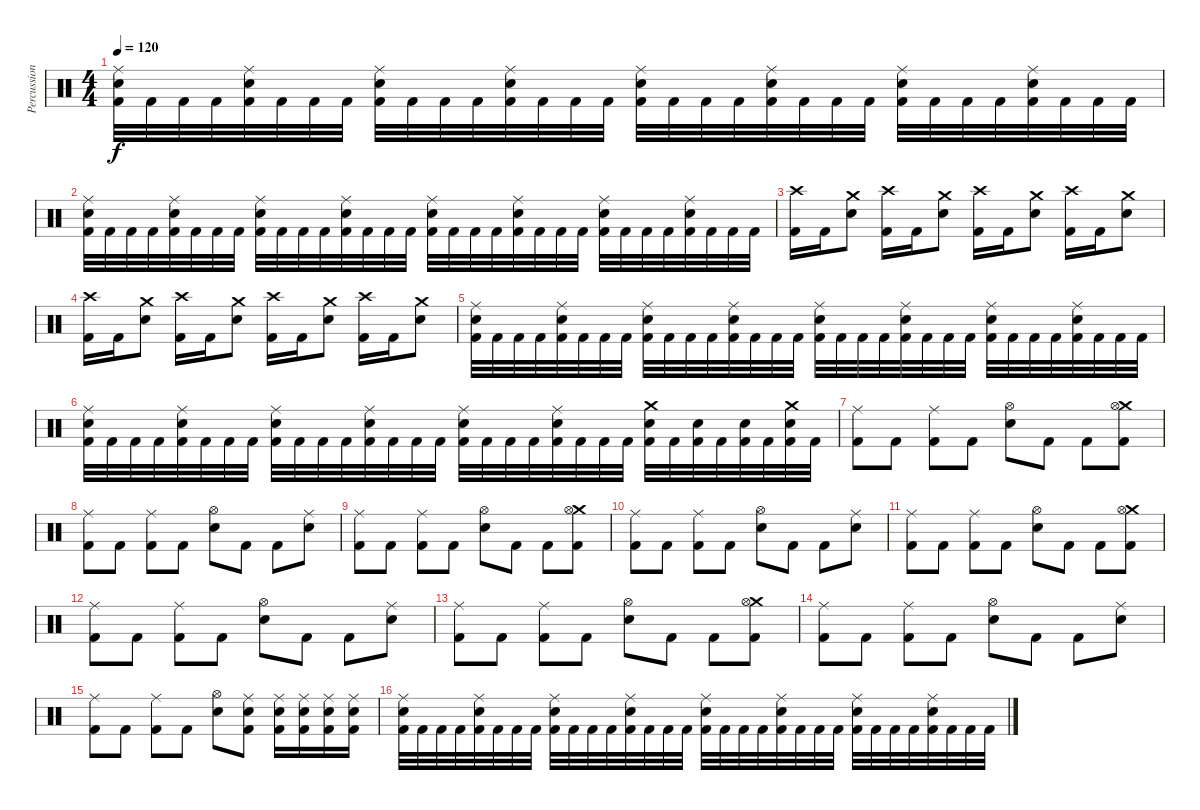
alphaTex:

\track ("Percussion" "Percussion") {instrument percussion}
\staff {score}
\articulation defaults
\ts (4 4)
\tempo 120
\clef neutral
\ks c
("Ride (middle)" "Snare (hit) 2" "Kick (hit) 2").32{dy f} "Kick (hit) 2".32 "Kick (hit) 2".32 "Kick (hit) 2".32 ("Ride (middle)" "Snare (hit) 2" "Kick (hit) 2").32 "Kick (hit) 2".32 "Kick (hit) 2".32 "Kick (hit) 2".32 ("Ride (middle)" "Snare (hit) 2" "Kick (hit) 2").32 "Kick (hit) 2".32 "Kick (hit) 2".32 "Kick (hit) 2".32 ("Ride (middle)" "Snare (hit) 2" "Kick (hit) 2").32 "Kick (hit) 2".32 "Kick (hit) 2".32 "Kick (hit) 2".32 ("Ride (middle)" "Snare (hit) 2" "Kick (hit) 2").32 "Kick (hit) 2".32 "Kick (hit) 2".32 "Kick (hit) 2".32 ("Ride (middle)" "Snare (hit) 2" "Kick (hit) 2").32 "Kick (hit) 2".32 "Kick (hit) 2".32 "Kick (hit) 2".32 ("Ride (middle)" "Snare (hit) 2" "Kick (hit) 2").32 "Kick (hit) 2".32 "Kick (hit) 2".32 "Kick (hit) 2".32 ("Ride (middle)" "Snare (hit) 2" "Kick (hit) 2").32 "Kick (hit) 2".32 "Kick (hit) 2".32 "Kick (hit) 2".32 |
("Ride (middle)" "Snare (hit) 2" "Kick (hit) 2").32 "Kick (hit) 2".32 "Kick (hit) 2".32 "Kick (hit) 2".32 ("Ride (middle)" "Snare (hit) 2" "Kick (hit) 2").32 "Kick (hit) 2".32 "Kick (hit) 2".32 "Kick (hit) 2".32 ("Ride (middle)" "Snare (hit) 2" "Kick (hit) 2").32 "Kick (hit) 2".32 "Kick (hit) 2".32 "Kick (hit) 2".32 ("Ride (middle)" "Snare (hit) 2" "Kick (hit) 2").32 "Kick (hit) 2".32 "Kick (hit) 2".32 "Kick (hit) 2".32 ("Ride (middle)" "Snare (hit) 2" "Kick (hit) 2").32 "Kick (hit) 2".32 "Kick (hit) 2".32 "Kick (hit) 2".32 ("Ride (middle)" "Snare (hit) 2" "Kick (hit) 2").32 "Kick (hit) 2".32 "Kick (hit) 2".32 "Kick (hit) 2".32 ("Ride (middle)" "Snare (hit) 2" "Kick (hit) 2").32 "Kick (hit) 2".32 "Kick (hit) 2".32 "Kick (hit) 2".32 ("Ride (middle)" "Snare (hit) 2" "Kick (hit) 2").32 "Kick (hit) 2".32 "Kick (hit) 2".32 "Kick (hit) 2".32 |
("Crash high (hit)" "Kick (hit) 2").16 "Kick (hit) 2".16 ("Crash medium (hit)" "Snare (hit) 2").8 ("Crash high (hit)" "Kick (hit) 2").16 "Kick (hit) 2".16 ("Crash medium (hit)" "Snare (hit) 2").8 ("Crash high (hit)" "Kick (hit) 2").16 "Kick (hit) 2".16 ("Crash medium (hit)" "Snare (hit) 2").8 ("Crash high (hit)" "Kick (hit) 2").16 "Kick (hit) 2".16 ("Crash medium (hit)" "Snare (hit) 2").8 |
("Crash high (hit)" "Kick (hit) 2").16 "Kick (hit) 2".16 ("Crash medium (hit)" "Snare (hit) 2").8 ("Crash high (hit)" "Kick (hit) 2").16 "Kick (hit) 2".16 ("Crash medium (hit)" "Snare (hit) 2").8 ("Crash high (hit)" "Kick (hit) 2").16 "Kick (hit) 2".16 ("Crash medium (hit)" "Snare (hit) 2").8 ("Crash high (hit)" "Kick (hit) 2").16 "Kick (hit) 2".16 ("Crash medium (hit)" "Snare (hit) 2").8 |
("Ride (middle)" "Snare (hit) 2" "Kick (hit) 2").32 "Kick (hit) 2".32 "Kick (hit) 2".32 "Kick (hit) 2".32 ("Ride (middle)" "Snare (hit) 2" "Kick (hit) 2").32 "Kick (hit) 2".32 "Kick (hit) 2".32 "Kick (hit) 2".32 ("Ride (middle)" "Snare (hit) 2" "Kick (hit) 2").32 "Kick (hit) 2".32 "Kick (hit) 2".32 "Kick (hit) 2".32 ("Ride (middle)" "Snare (hit) 2" "Kick (hit) 2").32 "Kick (hit) 2".32 "Kick (hit) 2".32 "Kick (hit) 2".32 ("Ride (middle)" "Snare (hit) 2" "Kick (hit) 2").32 "Kick (hit) 2".32 "Kick (hit) 2".32 "Kick (hit) 2".32 ("Ride (middle)" "Snare (hit) 2" "Kick (hit) 2").32 "Kick (hit) 2".32 "Kick (hit) 2".32 "Kick (hit) 2".32 ("Ride (middle)" "Snare (hit) 2" "Kick (hit) 2").32 "Kick (hit) 2".32 "Kick (hit) 2".32 "Kick (hit) 2".32 ("Ride (middle)" "Snare (hit) 2" "Kick (hit) 2").32 "Kick (hit) 2".32 "Kick (hit) 2".32 "Kick (hit) 2".32 |
("Ride (middle)" "Snare (hit) 2" "Kick (hit) 2").32 "Kick (hit) 2".32 "Kick (hit) 2".32 "Kick (hit) 2".32 ("Ride (middle)" "Snare (hit) 2" "Kick (hit) 2").32 "Kick (hit) 2".32 "Kick (hit) 2".32 "Kick (hit) 2".32 ("Ride (middle)" "Snare (hit) 2" "Kick (hit) 2").32 "Kick (hit) 2".32 "Kick (hit) 2".32 "Kick (hit) 2".32 ("Ride (middle)" "Snare (hit) 2" "Kick (hit) 2").32 "Kick (hit) 2".32 "Kick (hit) 2".32 "Kick (hit) 2".32 ("Ride (middle)" "Snare (hit) 2" "Kick (hit) 2").32 "Kick (hit) 2".32 "Kick (hit) 2".32 "Kick (hit) 2".32 ("Ride (middle)" "Snare (hit) 2" "Kick (hit) 2").32 "Kick (hit) 2".32 "Kick (hit) 2".32 "Kick (hit) 2".32 ("Crash medium (hit)" "Snare (hit) 2" "Kick (hit) 2").32 "Kick (hit) 2".32 ("Snare (hit) 2" "Kick (hit) 2").32 "Kick (hit) 2".32 ("Snare (hit) 2" "Kick (hit) 2").32 "Kick (hit) 2".32 ("Crash medium (hit)" "Snare (hit) 2" "Kick (hit) 2").32 "Kick (hit) 2".32 |
("Ride (middle)" "Kick (hit) 2").8 "Kick (hit) 2".8 ("Ride (middle)" "Kick (hit) 2").8 "Kick (hit) 2".8 ("Hi-Hat (open)" "Snare (hit) 2").8 "Kick (hit) 2".8 "Kick (hit) 2".8 ("Crash medium (hit)" "Hi-Hat (open)" "Kick (hit) 2").8 |
("Ride (middle)" "Kick (hit) 2").8 "Kick (hit) 2".8 ("Ride (middle)" "Kick (hit) 2").8 "Kick (hit) 2".8 ("Hi-Hat (open)" "Snare (hit) 2").8 "Kick (hit) 2".8 "Kick (hit) 2".8 ("Ride (middle)" "Snare (hit) 2").8 |
("Ride (middle)" "Kick (hit) 2").8 "Kick (hit) 2".8 ("Ride (middle)" "Kick (hit) 2").8 "Kick (hit) 2".8 ("Hi-Hat (open)" "Snare (hit) 2").8 "Kick (hit) 2".8 "Kick (hit) 2".8 ("Crash medium (hit)" "Hi-Hat (open)" "Kick (hit) 2").8 |
("Ride (middle)" "Kick (hit) 2").8 "Kick (hit) 2".8 ("Ride (middle)" "Kick (hit) 2").8 "Kick (hit) 2".8 ("Hi-Hat (open)" "Snare (hit) 2").8 "Kick (hit) 2".8 "Kick (hit) 2".8 ("Ride (middle)" "Snare (hit) 2").8 |
("Ride (middle)" "Kick (hit) 2").8 "Kick (hit) 2".8 ("Ride (middle)" "Kick (hit) 2").8 "Kick (hit) 2".8 ("Hi-Hat (open)" "Snare (hit) 2").8 "Kick (hit) 2".8 "Kick (hit) 2".8 ("Crash medium (hit)" "Hi-Hat (open)" "Kick (hit) 2").8 |
("Ride (middle)" "Kick (hit) 2").8 "Kick (hit) 2".8 ("Ride (middle)" "Kick (hit) 2").8 "Kick (hit) 2".8 ("Hi-Hat (open)" "Snare (hit) 2").8 "Kick (hit) 2".8 "Kick (hit) 2".8 ("Ride (middle)" "Snare (hit) 2").8 |
("Ride (middle)" "Kick (hit) 2").8 "Kick (hit) 2".8 ("Ride (middle)" "Kick (hit) 2").8 "Kick (hit) 2".8 ("Hi-Hat (open)" "Snare (hit) 2").8 "Kick (hit) 2".8 "Kick (hit) 2".8 ("Crash medium (hit)" "Hi-Hat (open)" "Kick (hit) 2").8 |
("Ride (middle)" "Kick (hit) 2").8 "Kick (hit) 2".8 ("Ride (middle)" "Kick (hit) 2").8 "Kick (hit) 2".8 ("Hi-Hat (open)" "Snare (hit) 2").8 "Kick (hit) 2".8 "Kick (hit) 2".8 ("Ride (middle)" "Snare (hit) 2").8 |
("Ride (middle)" "Kick (hit) 2").8 "Kick (hit) 2".8 ("Ride (middle)" "Kick (hit) 2").8 "Kick (hit) 2".8 ("Hi-Hat (open)" "Snare (hit) 2").8 ("Ride (middle)" "Kick (hit) 2" "Snare (hit) 2").8 ("Snare (hit) 2" "Ride (middle)" "Kick (hit) 2").16 ("Snare (hit) 2" "Ride (middle)" "Kick (hit) 2").16 ("Ride (middle)" "Snare (hit) 2" "Kick (hit) 2").16 ("Ride (middle)" "Snare (hit) 2" "Kick (hit) 2").16 |
("Ride (middle)" "Snare (hit) 2" "Kick (hit) 2").32 "Kick (hit) 2".32 "Kick (hit) 2".32 "Kick (hit) 2".32 ("Ride (middle)" "Snare (hit) 2" "Kick (hit) 2").32 "Kick (hit) 2".32 "Kick (hit) 2".32 "Kick (hit) 2".32 ("Ride (middle)" "Snare (hit) 2" "Kick (hit) 2").32 "Kick (hit) 2".32 "Kick (hit) 2".32 "Kick (hit) 2".32 ("Ride (middle)" "Snare (hit) 2" "Kick (hit) 2").32 "Kick (hit) 2".32 "Kick (hit) 2".32 "Kick (hit) 2".32 ("Ride (middle)" "Snare (hit) 2" "Kick (hit) 2").32 "Kick (hit) 2".32 "Kick (hit) 2".32 "Kick (hit) 2".32 ("Ride (middle)" "Snare (hit) 2" "Kick (hit) 2").32 "Kick (hit) 2".32 "Kick (hit) 2".32 "Kick (hit) 2".32 ("Ride (middle)" "Snare (hit) 2" "Kick (hit) 2").32 "Kick (hit) 2".32 "Kick (hit) 2".32 "Kick (hit) 2".32 ("Ride (middle)" "Snare (hit) 2" "Kick (hit) 2").32 "Kick (hit) 2".32 "Kick (hit) 2".32 "Kick (hit) 2".32
